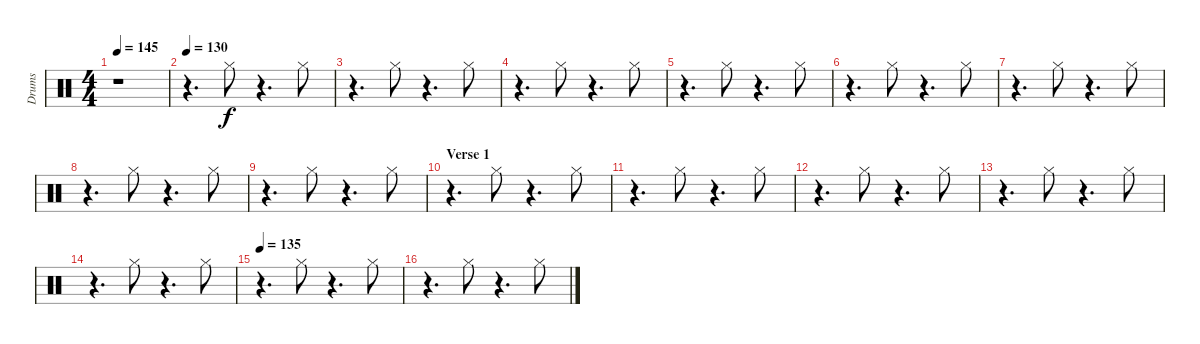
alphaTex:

\track ("Drums" "Drums") {instrument percussion}
\staff {score}
\articulation defaults
\ts (4 4)
\tempo 145
\clef neutral
\ks c
r.1{dy f} |
\tempo 130
r.4{d} "Hi-Hat (closed)".8 r.4{d} "Hi-Hat (closed)".8 |
r.4{d} "Hi-Hat (closed)".8 r.4{d} "Hi-Hat (closed)".8 |
r.4{d} "Hi-Hat (closed)".8 r.4{d} "Hi-Hat (closed)".8 |
r.4{d} "Hi-Hat (closed)".8 r.4{d} "Hi-Hat (closed)".8 |
r.4{d} "Hi-Hat (closed)".8 r.4{d} "Hi-Hat (closed)".8 |
r.4{d} "Hi-Hat (closed)".8 r.4{d} "Hi-Hat (closed)".8 |
r.4{d} "Hi-Hat (closed)".8 r.4{d} "Hi-Hat (closed)".8 |
r.4{d} "Hi-Hat (closed)".8 r.4{d} "Hi-Hat (closed)".8 |
\section ("" "Verse 1")
r.4{d} "Hi-Hat (closed)".8 r.4{d} "Hi-Hat (closed)".8 |
r.4{d} "Hi-Hat (closed)".8 r.4{d} "Hi-Hat (closed)".8 |
r.4{d} "Hi-Hat (closed)".8 r.4{d} "Hi-Hat (closed)".8 |
r.4{d} "Hi-Hat (closed)".8 r.4{d} "Hi-Hat (closed)".8 |
r.4{d} "Hi-Hat (closed)".8 r.4{d} "Hi-Hat (closed)".8 |
\tempo 135
r.4{d} "Hi-Hat (closed)".8 r.4{d} "Hi-Hat (closed)".8 |
r.4{d} "Hi-Hat (closed)".8 r.4{d} "Hi-Hat (closed)".8
